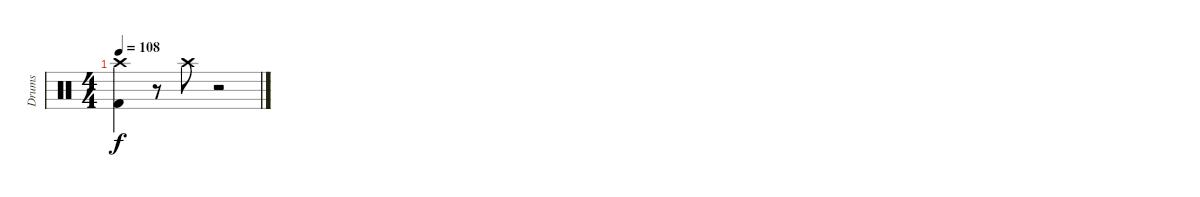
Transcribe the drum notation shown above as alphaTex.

\track ("Drums" "Drums") {instrument percussion}
\staff {score}
\articulation defaults
\ts (4 4)
\tempo 108
\clef neutral
\ks c
("Crash high (hit)" "Kick (hit) 2").4{dy f} r.8 "Crash high (hit)".8 r.2
